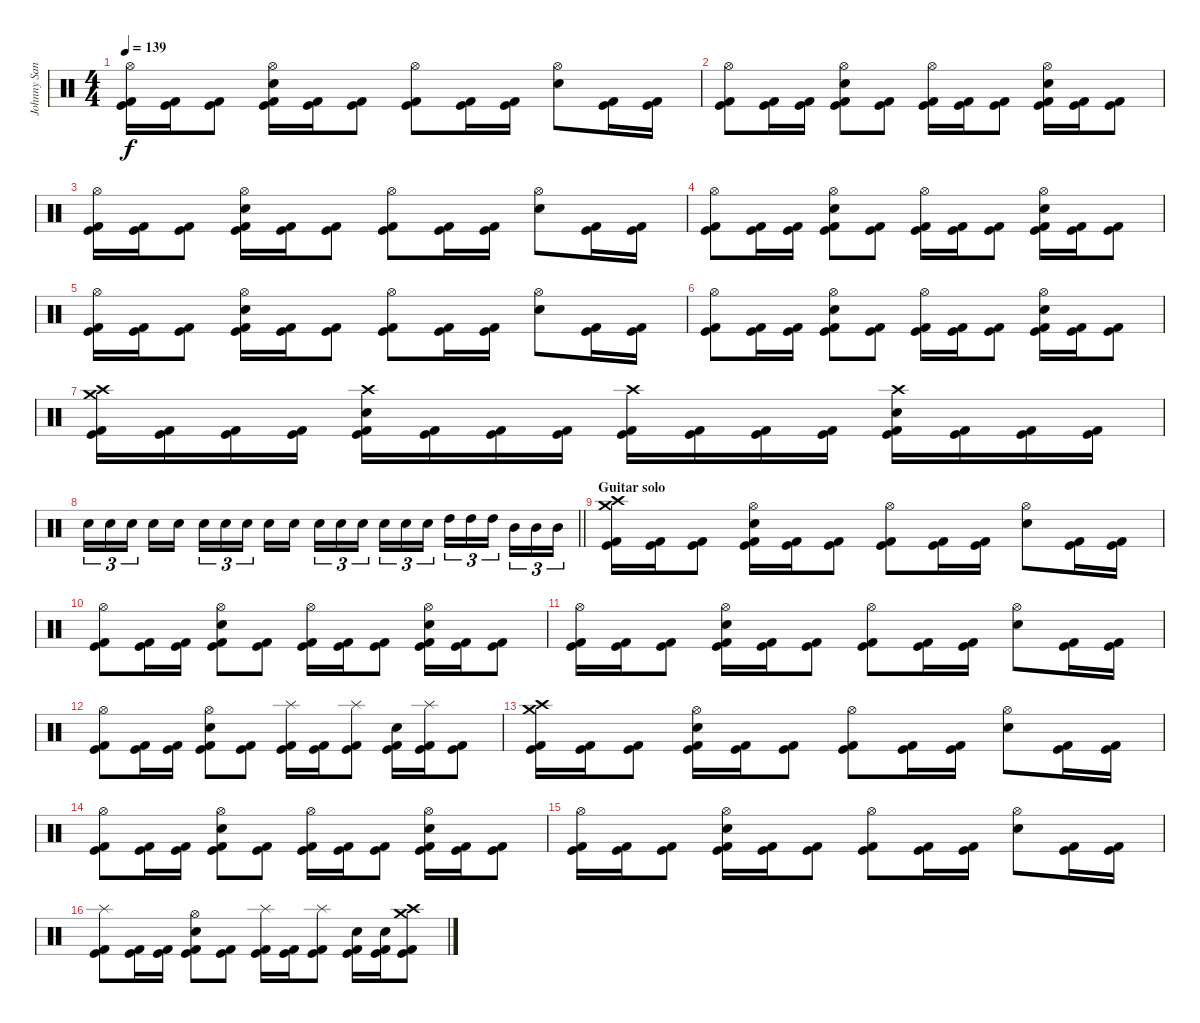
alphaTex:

\track ("Johnny Sandin" "Johnny San") {instrument percussion}
\staff {score}
\articulation defaults
\ts (4 4)
\tempo 139
\clef neutral
\ks c
("Hi-Hat (open)" "Kick (hit) 2" "Kick (hit)").16{dy f} ("Kick (hit) 2" "Kick (hit)").16 ("Kick (hit) 2" "Kick (hit)").8 ("Hi-Hat (open)" "Snare (hit) 2" "Kick (hit) 2" "Kick (hit)").16 ("Kick (hit) 2" "Kick (hit)").16 ("Kick (hit) 2" "Kick (hit)").8 ("Hi-Hat (open)" "Kick (hit) 2" "Kick (hit)").8 ("Kick (hit) 2" "Kick (hit)").16 ("Kick (hit) 2" "Kick (hit)").16 ("Hi-Hat (open)" "Snare (hit) 2").8 ("Kick (hit) 2" "Kick (hit)").16 ("Kick (hit) 2" "Kick (hit)").16 |
("Hi-Hat (open)" "Kick (hit) 2" "Kick (hit)").8 ("Kick (hit) 2" "Kick (hit)").16 ("Kick (hit) 2" "Kick (hit)").16 ("Hi-Hat (open)" "Snare (hit) 2" "Kick (hit) 2" "Kick (hit)").8 ("Kick (hit) 2" "Kick (hit)").8 ("Hi-Hat (open)" "Kick (hit) 2" "Kick (hit)").16 ("Kick (hit) 2" "Kick (hit)").16 ("Kick (hit) 2" "Kick (hit)").8 ("Hi-Hat (open)" "Snare (hit) 2" "Kick (hit) 2" "Kick (hit)").16 ("Kick (hit) 2" "Kick (hit)").16 ("Kick (hit) 2" "Kick (hit)").8 |
("Hi-Hat (open)" "Kick (hit) 2" "Kick (hit)").16 ("Kick (hit) 2" "Kick (hit)").16 ("Kick (hit) 2" "Kick (hit)").8 ("Hi-Hat (open)" "Snare (hit) 2" "Kick (hit) 2" "Kick (hit)").16 ("Kick (hit) 2" "Kick (hit)").16 ("Kick (hit) 2" "Kick (hit)").8 ("Hi-Hat (open)" "Kick (hit) 2" "Kick (hit)").8 ("Kick (hit) 2" "Kick (hit)").16 ("Kick (hit) 2" "Kick (hit)").16 ("Hi-Hat (open)" "Snare (hit) 2").8 ("Kick (hit) 2" "Kick (hit)").16 ("Kick (hit) 2" "Kick (hit)").16 |
("Hi-Hat (open)" "Kick (hit) 2" "Kick (hit)").8 ("Kick (hit) 2" "Kick (hit)").16 ("Kick (hit) 2" "Kick (hit)").16 ("Hi-Hat (open)" "Snare (hit) 2" "Kick (hit) 2" "Kick (hit)").8 ("Kick (hit) 2" "Kick (hit)").8 ("Hi-Hat (open)" "Kick (hit) 2" "Kick (hit)").16 ("Kick (hit) 2" "Kick (hit)").16 ("Kick (hit) 2" "Kick (hit)").8 ("Hi-Hat (open)" "Snare (hit) 2" "Kick (hit) 2" "Kick (hit)").16 ("Kick (hit) 2" "Kick (hit)").16 ("Kick (hit) 2" "Kick (hit)").8 |
("Hi-Hat (open)" "Kick (hit) 2" "Kick (hit)").16 ("Kick (hit) 2" "Kick (hit)").16 ("Kick (hit) 2" "Kick (hit)").8 ("Hi-Hat (open)" "Snare (hit) 2" "Kick (hit) 2" "Kick (hit)").16 ("Kick (hit) 2" "Kick (hit)").16 ("Kick (hit) 2" "Kick (hit)").8 ("Hi-Hat (open)" "Kick (hit) 2" "Kick (hit)").8 ("Kick (hit) 2" "Kick (hit)").16 ("Kick (hit) 2" "Kick (hit)").16 ("Hi-Hat (open)" "Snare (hit) 2").8 ("Kick (hit) 2" "Kick (hit)").16 ("Kick (hit) 2" "Kick (hit)").16 |
("Hi-Hat (open)" "Kick (hit) 2" "Kick (hit)").8 ("Kick (hit) 2" "Kick (hit)").16 ("Kick (hit) 2" "Kick (hit)").16 ("Hi-Hat (open)" "Snare (hit) 2" "Kick (hit) 2" "Kick (hit)").8 ("Kick (hit) 2" "Kick (hit)").8 ("Hi-Hat (open)" "Kick (hit) 2" "Kick (hit)").16 ("Kick (hit) 2" "Kick (hit)").16 ("Kick (hit) 2" "Kick (hit)").8 ("Hi-Hat (open)" "Snare (hit) 2" "Kick (hit) 2" "Kick (hit)").16 ("Kick (hit) 2" "Kick (hit)").16 ("Kick (hit) 2" "Kick (hit)").8 |
("Crash medium (hit)" "Crash high (hit)" "Kick (hit) 2" "Kick (hit)").16 ("Kick (hit) 2" "Kick (hit)").16 ("Kick (hit) 2" "Kick (hit)").16 ("Kick (hit) 2" "Kick (hit)").16 ("Crash high (hit)" "Snare (hit) 2" "Kick (hit) 2" "Kick (hit)").16 ("Kick (hit) 2" "Kick (hit)").16 ("Kick (hit) 2" "Kick (hit)").16 ("Kick (hit) 2" "Kick (hit)").16 ("Crash high (hit)" "Kick (hit) 2" "Kick (hit)").16 ("Kick (hit) 2" "Kick (hit)").16 ("Kick (hit) 2" "Kick (hit)").16 ("Kick (hit) 2" "Kick (hit)").16 ("Crash high (hit)" "Snare (hit) 2" "Kick (hit) 2" "Kick (hit)").16 ("Kick (hit) 2" "Kick (hit)").16 ("Kick (hit) 2" "Kick (hit)").16 ("Kick (hit) 2" "Kick (hit)").16 |
\barLineRight lightlight "Snare (hit) 2".16{tu (3 2)} "Snare (hit) 2".16{tu (3 2)} "Snare (hit) 2".16{tu (3 2)} "Snare (hit) 2".16 "Snare (hit) 2".16 "Snare (hit) 2".16{tu (3 2)} "Snare (hit) 2".16{tu (3 2)} "Snare (hit) 2".16{tu (3 2)} "Snare (hit) 2".16 "Snare (hit) 2".16 "Snare (hit) 2".16{tu (3 2)} "Snare (hit) 2".16{tu (3 2)} "Snare (hit) 2".16{tu (3 2)} "Snare (hit) 2".16{tu (3 2)} "Snare (hit) 2".16{tu (3 2)} "Snare (hit) 2".16{tu (3 2)} "High Tom (hit)".16{tu (3 2)} "High Tom (hit)".16{tu (3 2)} "High Tom (hit)".16{tu (3 2)} "Mid Tom (hit)".16{tu (3 2)} "Mid Tom (hit)".16{tu (3 2)} "Mid Tom (hit)".16{tu (3 2)}
|
\section ("" "Guitar solo")
("Crash medium (hit)" "Crash high (hit)" "Kick (hit) 2" "Kick (hit)").16 ("Kick (hit) 2" "Kick (hit)").16 ("Kick (hit) 2" "Kick (hit)").8 ("Hi-Hat (open)" "Snare (hit) 2" "Kick (hit) 2" "Kick (hit)").16 ("Kick (hit) 2" "Kick (hit)").16 ("Kick (hit) 2" "Kick (hit)").8 ("Hi-Hat (open)" "Kick (hit) 2" "Kick (hit)").8 ("Kick (hit) 2" "Kick (hit)").16 ("Kick (hit) 2" "Kick (hit)").16 ("Hi-Hat (open)" "Snare (hit) 2").8 ("Kick (hit) 2" "Kick (hit)").16 ("Kick (hit) 2" "Kick (hit)").16 |
("Hi-Hat (open)" "Kick (hit) 2" "Kick (hit)").8 ("Kick (hit) 2" "Kick (hit)").16 ("Kick (hit) 2" "Kick (hit)").16 ("Hi-Hat (open)" "Snare (hit) 2" "Kick (hit) 2" "Kick (hit)").8 ("Kick (hit) 2" "Kick (hit)").8 ("Hi-Hat (open)" "Kick (hit) 2" "Kick (hit)").16 ("Kick (hit) 2" "Kick (hit)").16 ("Kick (hit) 2" "Kick (hit)").8 ("Hi-Hat (open)" "Snare (hit) 2" "Kick (hit) 2" "Kick (hit)").16 ("Kick (hit) 2" "Kick (hit)").16 ("Kick (hit) 2" "Kick (hit)").8 |
("Hi-Hat (open)" "Kick (hit) 2" "Kick (hit)").16 ("Kick (hit) 2" "Kick (hit)").16 ("Kick (hit) 2" "Kick (hit)").8 ("Hi-Hat (open)" "Snare (hit) 2" "Kick (hit) 2" "Kick (hit)").16 ("Kick (hit) 2" "Kick (hit)").16 ("Kick (hit) 2" "Kick (hit)").8 ("Hi-Hat (open)" "Kick (hit) 2" "Kick (hit)").8 ("Kick (hit) 2" "Kick (hit)").16 ("Kick (hit) 2" "Kick (hit)").16 ("Hi-Hat (open)" "Snare (hit) 2").8 ("Kick (hit) 2" "Kick (hit)").16 ("Kick (hit) 2" "Kick (hit)").16 |
("Hi-Hat (open)" "Kick (hit) 2" "Kick (hit)").8 ("Kick (hit) 2" "Kick (hit)").16 ("Kick (hit) 2" "Kick (hit)").16 ("Hi-Hat (open)" "Snare (hit) 2" "Kick (hit) 2" "Kick (hit)").8 ("Kick (hit) 2" "Kick (hit)").8 ("Splash (hit)" "Kick (hit) 2" "Kick (hit)").16 ("Kick (hit) 2" "Kick (hit)").16 ("Splash (hit)" "Kick (hit) 2" "Kick (hit)").8 ("Snare (hit) 2" "Kick (hit) 2" "Kick (hit)").16 ("Splash (hit)" "Kick (hit) 2" "Kick (hit)").16 ("Kick (hit) 2" "Kick (hit)").8 |
("Crash medium (hit)" "Crash high (hit)" "Kick (hit) 2" "Kick (hit)").16 ("Kick (hit) 2" "Kick (hit)").16 ("Kick (hit) 2" "Kick (hit)").8 ("Hi-Hat (open)" "Snare (hit) 2" "Kick (hit) 2" "Kick (hit)").16 ("Kick (hit) 2" "Kick (hit)").16 ("Kick (hit) 2" "Kick (hit)").8 ("Hi-Hat (open)" "Kick (hit) 2" "Kick (hit)").8 ("Kick (hit) 2" "Kick (hit)").16 ("Kick (hit) 2" "Kick (hit)").16 ("Hi-Hat (open)" "Snare (hit) 2").8 ("Kick (hit) 2" "Kick (hit)").16 ("Kick (hit) 2" "Kick (hit)").16 |
("Hi-Hat (open)" "Kick (hit) 2" "Kick (hit)").8 ("Kick (hit) 2" "Kick (hit)").16 ("Kick (hit) 2" "Kick (hit)").16 ("Hi-Hat (open)" "Snare (hit) 2" "Kick (hit) 2" "Kick (hit)").8 ("Kick (hit) 2" "Kick (hit)").8 ("Hi-Hat (open)" "Kick (hit) 2" "Kick (hit)").16 ("Kick (hit) 2" "Kick (hit)").16 ("Kick (hit) 2" "Kick (hit)").8 ("Hi-Hat (open)" "Snare (hit) 2" "Kick (hit) 2" "Kick (hit)").16 ("Kick (hit) 2" "Kick (hit)").16 ("Kick (hit) 2" "Kick (hit)").8 |
("Hi-Hat (open)" "Kick (hit) 2" "Kick (hit)").16 ("Kick (hit) 2" "Kick (hit)").16 ("Kick (hit) 2" "Kick (hit)").8 ("Hi-Hat (open)" "Snare (hit) 2" "Kick (hit) 2" "Kick (hit)").16 ("Kick (hit) 2" "Kick (hit)").16 ("Kick (hit) 2" "Kick (hit)").8 ("Hi-Hat (open)" "Kick (hit) 2" "Kick (hit)").8 ("Kick (hit) 2" "Kick (hit)").16 ("Kick (hit) 2" "Kick (hit)").16 ("Hi-Hat (open)" "Snare (hit) 2").8 ("Kick (hit) 2" "Kick (hit)").16 ("Kick (hit) 2" "Kick (hit)").16 |
("Splash (hit)" "Kick (hit) 2" "Kick (hit)").8 ("Kick (hit) 2" "Kick (hit)").16 ("Kick (hit) 2" "Kick (hit)").16 ("Hi-Hat (open)" "Snare (hit) 2" "Kick (hit) 2" "Kick (hit)").8 ("Kick (hit) 2" "Kick (hit)").8 ("Splash (hit)" "Kick (hit) 2" "Kick (hit)").16 ("Kick (hit) 2" "Kick (hit)").16 ("Splash (hit)" "Kick (hit) 2" "Kick (hit)").8 ("Snare (hit) 2" "Kick (hit) 2" "Kick (hit)").16 ("Snare (hit) 2" "Kick (hit) 2" "Kick (hit)").16 ("Crash medium (hit)" "Crash high (hit)" "Kick (hit) 2" "Kick (hit)").8
